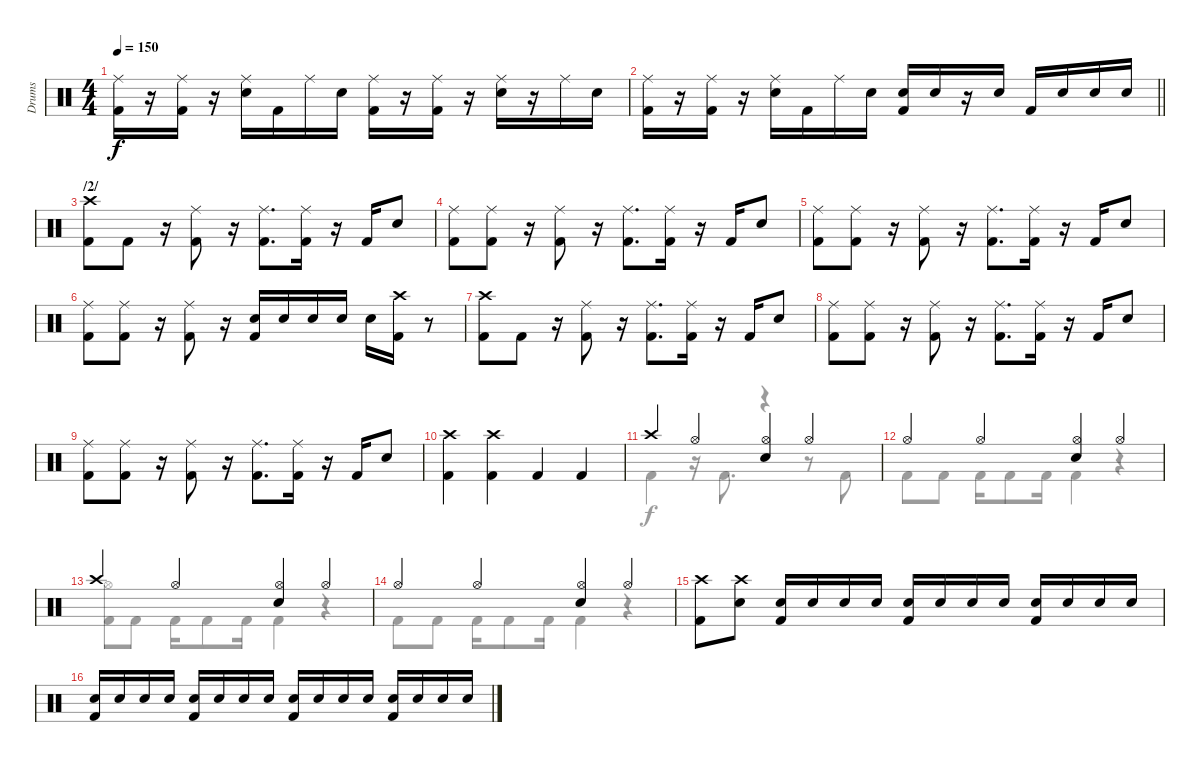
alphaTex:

\track ("Drums" "Drums") {instrument percussion}
\staff {score}
\articulation defaults
\voice
\ts (4 4)
\tempo 150
\clef neutral
\ks c
("Ride (middle)" "Kick (hit) 2").16{dy f} r.16 ("Ride (middle)" "Kick (hit) 2").16 r.16 ("Ride (middle)" "Snare (hit) 2").16 "Kick (hit) 2".16 "Ride (middle)".16 "Snare (hit) 2".16 ("Ride (middle)" "Kick (hit) 2").16 r.16 ("Ride (middle)" "Kick (hit) 2").16 r.16 ("Ride (middle)" "Snare (hit) 2").16 r.16 "Ride (middle)".16 "Snare (hit) 2".16 |
\barLineRight lightlight
("Ride (middle)" "Kick (hit) 2").16 r.16 ("Ride (middle)" "Kick (hit) 2").16 r.16 ("Ride (middle)" "Snare (hit) 2").16 "Kick (hit) 2".16 "Ride (middle)".16 "Snare (hit) 2".16 ("Snare (hit) 2" "Kick (hit) 2").16 "Snare (hit) 2".16 r.16 "Snare (hit) 2".16 "Kick (hit) 2".16 "Snare (hit) 2".16 "Snare (hit) 2".16 "Snare (hit) 2".16 |
\section ("" "/2/")
("Crash high (hit)" "Kick (hit) 2").8 "Kick (hit) 2".8 r.16 ("Ride (middle)" "Kick (hit) 2").8 r.16 ("Ride (middle)" "Kick (hit) 2").8{d} ("Ride (middle)" "Kick (hit) 2").16 r.16 "Kick (hit) 2".16 "Snare (hit) 2".8 |
("Ride (middle)" "Kick (hit) 2").8 ("Ride (middle)" "Kick (hit) 2").8 r.16 ("Ride (middle)" "Kick (hit) 2").8 r.16 ("Ride (middle)" "Kick (hit) 2").8{d} ("Ride (middle)" "Kick (hit) 2").16 r.16 "Kick (hit) 2".16 "Snare (hit) 2".8 |
("Ride (middle)" "Kick (hit) 2").8 ("Ride (middle)" "Kick (hit) 2").8 r.16 ("Ride (middle)" "Kick (hit) 2").8 r.16 ("Ride (middle)" "Kick (hit) 2").8{d} ("Ride (middle)" "Kick (hit) 2").16 r.16 "Kick (hit) 2".16 "Snare (hit) 2".8 |
("Ride (middle)" "Kick (hit) 2").8 ("Ride (middle)" "Kick (hit) 2").8 r.16 ("Ride (middle)" "Kick (hit) 2").8 r.16 ("Snare (hit) 2" "Kick (hit) 2").16 "Snare (hit) 2".16 "Snare (hit) 2".16 "Snare (hit) 2".16 "Snare (hit) 2".16 ("Crash high (hit)" "Kick (hit) 2").16 r.8 |
("Crash high (hit)" "Kick (hit) 2").8 "Kick (hit) 2".8 r.16 ("Ride (middle)" "Kick (hit) 2").8 r.16 ("Ride (middle)" "Kick (hit) 2").8{d} ("Ride (middle)" "Kick (hit) 2").16 r.16 "Kick (hit) 2".16 "Snare (hit) 2".8 |
("Ride (middle)" "Kick (hit) 2").8 ("Ride (middle)" "Kick (hit) 2").8 r.16 ("Ride (middle)" "Kick (hit) 2").8 r.16 ("Ride (middle)" "Kick (hit) 2").8{d} ("Ride (middle)" "Kick (hit) 2").16 r.16 "Kick (hit) 2".16 "Snare (hit) 2".8 |
("Ride (middle)" "Kick (hit) 2").8 ("Ride (middle)" "Kick (hit) 2").8 r.16 ("Ride (middle)" "Kick (hit) 2").8 r.16 ("Ride (middle)" "Kick (hit) 2").8{d} ("Ride (middle)" "Kick (hit) 2").16 r.16 "Kick (hit) 2".16 "Snare (hit) 2".8 |
("Crash high (hit)" "Kick (hit) 2").4 ("Crash high (hit)" "Kick (hit) 2").4 "Kick (hit) 2".4 "Kick (hit) 2".4 |
"Crash high (hit)".4 "Hi-Hat (open)".4 ("Hi-Hat (open)" "Snare (hit) 2").4 "Hi-Hat (open)".4 |
"Hi-Hat (open)".4 "Hi-Hat (open)".4 ("Hi-Hat (open)" "Snare (hit) 2").4 "Hi-Hat (open)".4 |
"Crash high (hit)".4 "Hi-Hat (open)".4 ("Hi-Hat (open)" "Snare (hit) 2").4 "Hi-Hat (open)".4 |
"Hi-Hat (open)".4 "Hi-Hat (open)".4 ("Hi-Hat (open)" "Snare (hit) 2").4 "Hi-Hat (open)".4 |
("Crash high (hit)" "Kick (hit) 2").8 ("Crash high (hit)" "Snare (hit) 2").8 ("Electric Snare (hit)" "Kick (hit) 2").16 "Electric Snare (hit)".16 "Electric Snare (hit)".16 "Electric Snare (hit)".16 ("Electric Snare (hit)" "Kick (hit) 2").16 "Electric Snare (hit)".16 "Electric Snare (hit)".16 "Electric Snare (hit)".16 ("Electric Snare (hit)" "Kick (hit) 2").16 "Electric Snare (hit)".16 "Electric Snare (hit)".16 "Electric Snare (hit)".16 |
("Electric Snare (hit)" "Kick (hit) 2").16 "Electric Snare (hit)".16 "Electric Snare (hit)".16 "Electric Snare (hit)".16 ("Electric Snare (hit)" "Kick (hit) 2").16 "Electric Snare (hit)".16 "Electric Snare (hit)".16 "Electric Snare (hit)".16 ("Electric Snare (hit)" "Kick (hit) 2").16 "Electric Snare (hit)".16 "Electric Snare (hit)".16 "Electric Snare (hit)".16 ("Electric Snare (hit)" "Kick (hit) 2").16 "Electric Snare (hit)".16 "Electric Snare (hit)".16 "Electric Snare (hit)".16
\voice
\clef neutral
\ottava regular
\simile none
\ks c
|
\barLineRight lightlight
|
|
|
|
|
|
|
|
|
"Kick (hit) 2".4 r.16 "Kick (hit) 2".8{d} r.4 r.8 "Kick (hit) 2".8 |
"Kick (hit) 2".8 "Kick (hit) 2".8 "Kick (hit) 2".16 "Kick (hit) 2".8 "Kick (hit) 2".16 "Kick (hit) 2".4 r.4 |
("Hi-Hat (open)" "Kick (hit) 2").8 "Kick (hit) 2".8 "Kick (hit) 2".16 "Kick (hit) 2".8 "Kick (hit) 2".16 "Kick (hit) 2".4 r.4 |
"Kick (hit) 2".8 "Kick (hit) 2".8 "Kick (hit) 2".16 "Kick (hit) 2".8 "Kick (hit) 2".16 "Kick (hit) 2".4 r.4 |
|
